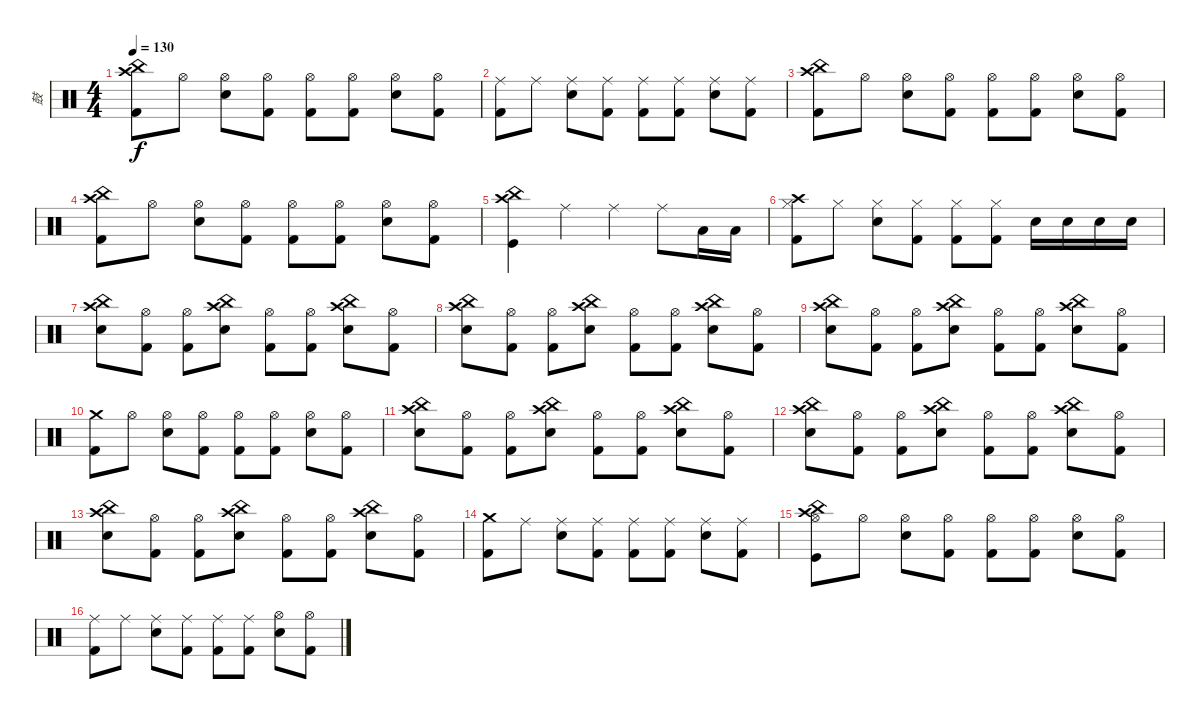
\track ("鼓" "鼓") {instrument percussion}
\staff {score}
\articulation defaults
\ts (4 4)
\tempo 130
\clef neutral
\ks c
("Crash high (hit)" "China (hit)" "Kick (hit) 2").8{dy f} "Hi-Hat (open)".8 ("Hi-Hat (open)" "Electric Snare (hit)").8 ("Hi-Hat (open)" "Kick (hit) 2").8 ("Hi-Hat (open)" "Kick (hit) 2").8 ("Hi-Hat (open)" "Kick (hit) 2").8 ("Hi-Hat (open)" "Electric Snare (hit)").8 ("Hi-Hat (open)" "Kick (hit) 2").8 |
("Ride (middle)" "Kick (hit) 2").8 "Ride (middle)".8 ("Ride (middle)" "Electric Snare (hit)").8 ("Ride (middle)" "Kick (hit) 2").8 ("Ride (middle)" "Kick (hit) 2").8 ("Ride (middle)" "Kick (hit) 2").8 ("Ride (middle)" "Electric Snare (hit)").8 ("Ride (middle)" "Kick (hit) 2").8 |
("Crash high (hit)" "China (hit)" "Kick (hit) 2").8 "Hi-Hat (open)".8 ("Hi-Hat (open)" "Electric Snare (hit)").8 ("Hi-Hat (open)" "Kick (hit) 2").8 ("Hi-Hat (open)" "Kick (hit) 2").8 ("Hi-Hat (open)" "Kick (hit) 2").8 ("Hi-Hat (open)" "Electric Snare (hit)").8 ("Hi-Hat (open)" "Kick (hit) 2").8 |
("Crash high (hit)" "China (hit)" "Kick (hit) 2").8 "Hi-Hat (open)".8 ("Hi-Hat (open)" "Electric Snare (hit)").8 ("Hi-Hat (open)" "Kick (hit) 2").8 ("Hi-Hat (open)" "Kick (hit) 2").8 ("Hi-Hat (open)" "Kick (hit) 2").8 ("Hi-Hat (open)" "Electric Snare (hit)").8 ("Hi-Hat (open)" "Kick (hit) 2").8 |
("Crash high (hit)" "China (hit)" "Kick (hit)").4 "Ride (middle)".4 "Ride (middle)".4 "Ride (middle)".8 "Low Floor Tom (hit)".16 "Low Floor Tom (hit)".16 |
("Crash high (hit)" "Hi-Hat (closed)" "Kick (hit) 2").8 "Hi-Hat (closed)".8 ("Hi-Hat (closed)" "Electric Snare (hit)").8 ("Hi-Hat (closed)" "Kick (hit) 2").8 ("Hi-Hat (closed)" "Kick (hit) 2").8 ("Hi-Hat (closed)" "Kick (hit) 2").8 "Electric Snare (hit)".16 "Electric Snare (hit)".16 "Electric Snare (hit)".16 "Electric Snare (hit)".16 |
("Crash high (hit)" "China (hit)" "Electric Snare (hit)").8 ("Hi-Hat (open)" "Kick (hit) 2").8 ("Hi-Hat (open)" "Kick (hit) 2").8 ("Crash high (hit)" "China (hit)" "Electric Snare (hit)").8 ("Hi-Hat (open)" "Kick (hit) 2").8 ("Hi-Hat (open)" "Kick (hit) 2").8 ("Crash high (hit)" "China (hit)" "Electric Snare (hit)").8 ("Hi-Hat (open)" "Kick (hit) 2").8 |
("Crash high (hit)" "China (hit)" "Electric Snare (hit)").8 ("Hi-Hat (open)" "Kick (hit) 2").8 ("Hi-Hat (open)" "Kick (hit) 2").8 ("Crash high (hit)" "China (hit)" "Electric Snare (hit)").8 ("Hi-Hat (open)" "Kick (hit) 2").8 ("Hi-Hat (open)" "Kick (hit) 2").8 ("Crash high (hit)" "China (hit)" "Electric Snare (hit)").8 ("Hi-Hat (open)" "Kick (hit) 2").8 |
("Crash high (hit)" "China (hit)" "Electric Snare (hit)").8 ("Hi-Hat (open)" "Kick (hit) 2").8 ("Hi-Hat (open)" "Kick (hit) 2").8 ("Crash high (hit)" "China (hit)" "Electric Snare (hit)").8 ("Hi-Hat (open)" "Kick (hit) 2").8 ("Hi-Hat (open)" "Kick (hit) 2").8 ("Crash high (hit)" "China (hit)" "Electric Snare (hit)").8 ("Hi-Hat (open)" "Kick (hit) 2").8 |
("Crash medium (hit)" "Kick (hit) 2").8 "Hi-Hat (open)".8 ("Hi-Hat (open)" "Electric Snare (hit)").8 ("Hi-Hat (open)" "Kick (hit) 2").8 ("Hi-Hat (open)" "Kick (hit) 2").8 ("Hi-Hat (open)" "Kick (hit) 2").8 ("Hi-Hat (open)" "Electric Snare (hit)").8 ("Hi-Hat (open)" "Kick (hit) 2").8 |
("Crash high (hit)" "China (hit)" "Electric Snare (hit)").8 ("Hi-Hat (open)" "Kick (hit) 2").8 ("Hi-Hat (open)" "Kick (hit) 2").8 ("Crash high (hit)" "China (hit)" "Electric Snare (hit)").8 ("Hi-Hat (open)" "Kick (hit) 2").8 ("Hi-Hat (open)" "Kick (hit) 2").8 ("Crash high (hit)" "China (hit)" "Electric Snare (hit)").8 ("Hi-Hat (open)" "Kick (hit) 2").8 |
("Crash high (hit)" "China (hit)" "Electric Snare (hit)").8 ("Hi-Hat (open)" "Kick (hit) 2").8 ("Hi-Hat (open)" "Kick (hit) 2").8 ("Crash high (hit)" "China (hit)" "Electric Snare (hit)").8 ("Hi-Hat (open)" "Kick (hit) 2").8 ("Hi-Hat (open)" "Kick (hit) 2").8 ("Crash high (hit)" "China (hit)" "Electric Snare (hit)").8 ("Hi-Hat (open)" "Kick (hit) 2").8 |
("Crash high (hit)" "China (hit)" "Electric Snare (hit)").8 ("Hi-Hat (open)" "Kick (hit) 2").8 ("Hi-Hat (open)" "Kick (hit) 2").8 ("Crash high (hit)" "China (hit)" "Electric Snare (hit)").8 ("Hi-Hat (open)" "Kick (hit) 2").8 ("Hi-Hat (open)" "Kick (hit) 2").8 ("Crash high (hit)" "China (hit)" "Electric Snare (hit)").8 ("Hi-Hat (open)" "Kick (hit) 2").8 |
("Crash medium (hit)" "Kick (hit) 2").8 "Ride (middle)".8 ("Ride (middle)" "Electric Snare (hit)").8 ("Ride (middle)" "Kick (hit) 2").8 ("Ride (middle)" "Kick (hit) 2").8 ("Ride (middle)" "Kick (hit) 2").8 ("Ride (middle)" "Electric Snare (hit)").8 ("Ride (middle)" "Kick (hit) 2").8 |
("China (hit)" "Hi-Hat (open)" "Crash high (hit)" "Kick (hit)").8 "Hi-Hat (open)".8 ("Hi-Hat (open)" "Electric Snare (hit)").8 ("Hi-Hat (open)" "Kick (hit) 2").8 ("Hi-Hat (open)" "Kick (hit) 2").8 ("Hi-Hat (open)" "Kick (hit) 2").8 ("Hi-Hat (open)" "Electric Snare (hit)").8 ("Hi-Hat (open)" "Kick (hit) 2").8 |
("Ride (middle)" "Kick (hit) 2").8 "Ride (middle)".8 ("Ride (middle)" "Electric Snare (hit)").8 ("Ride (middle)" "Kick (hit) 2").8 ("Ride (middle)" "Kick (hit) 2").8 ("Ride (middle)" "Kick (hit) 2").8 ("Hi-Hat (open)" "Electric Snare (hit)").8 ("Hi-Hat (open)" "Kick (hit) 2").8
